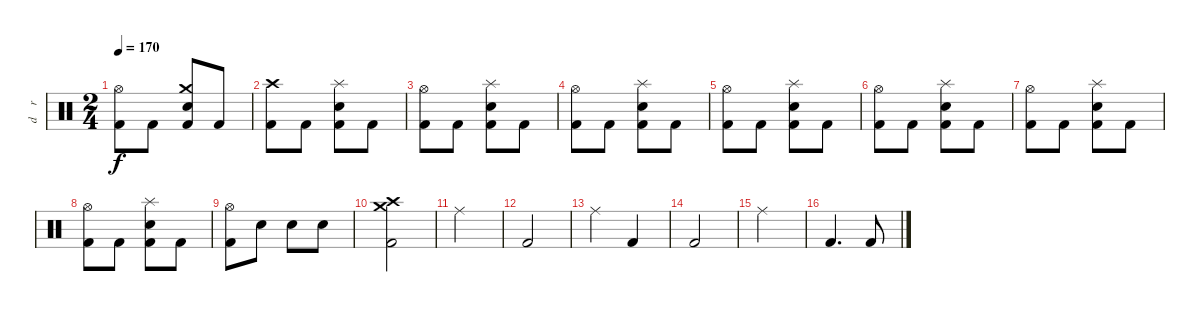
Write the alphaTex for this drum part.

\track ("d    r     u     m    s" "d    r    ") {instrument percussion}
\staff {score}
\articulation defaults
\ts (2 4)
\tempo 170
\clef neutral
\ks c
("Hi-Hat (open)" "Kick (hit) 2").8{dy f} "Kick (hit) 2".8 ("Crash medium (hit)" "Electric Snare (hit)" "Kick (hit) 2").8 "Kick (hit) 2".8 |
("Crash high (hit)" "Kick (hit) 2").8 "Kick (hit) 2".8 ("Splash (hit)" "Electric Snare (hit)" "Kick (hit) 2").8 "Kick (hit) 2".8 |
("Hi-Hat (open)" "Kick (hit) 2").8 "Kick (hit) 2".8 ("Splash (hit)" "Electric Snare (hit)" "Kick (hit) 2").8 "Kick (hit) 2".8 |
("Hi-Hat (open)" "Kick (hit) 2").8 "Kick (hit) 2".8 ("Splash (hit)" "Electric Snare (hit)" "Kick (hit) 2").8 "Kick (hit) 2".8 |
("Hi-Hat (open)" "Kick (hit) 2").8 "Kick (hit) 2".8 ("Splash (hit)" "Electric Snare (hit)" "Kick (hit) 2").8 "Kick (hit) 2".8 |
("Hi-Hat (open)" "Kick (hit) 2").8 "Kick (hit) 2".8 ("Splash (hit)" "Electric Snare (hit)" "Kick (hit) 2").8 "Kick (hit) 2".8 |
("Hi-Hat (open)" "Kick (hit) 2").8 "Kick (hit) 2".8 ("Splash (hit)" "Electric Snare (hit)" "Kick (hit) 2").8 "Kick (hit) 2".8 |
("Hi-Hat (open)" "Kick (hit) 2").8 "Kick (hit) 2".8 ("Splash (hit)" "Electric Snare (hit)" "Kick (hit) 2").8 "Kick (hit) 2".8 |
("Hi-Hat (open)" "Kick (hit) 2").8 "Electric Snare (hit)".8 "Electric Snare (hit)".8 "Electric Snare (hit)".8 |
("Crash high (hit)" "Crash medium (hit)" "Kick (hit) 2").2 |
"Ride (middle)".2 |
"Kick (hit) 2".2 |
"Ride (middle)".4 "Kick (hit) 2".4 |
"Kick (hit) 2".2 |
"Ride (middle)".2 |
"Kick (hit) 2".4{d} "Kick (hit) 2".8
